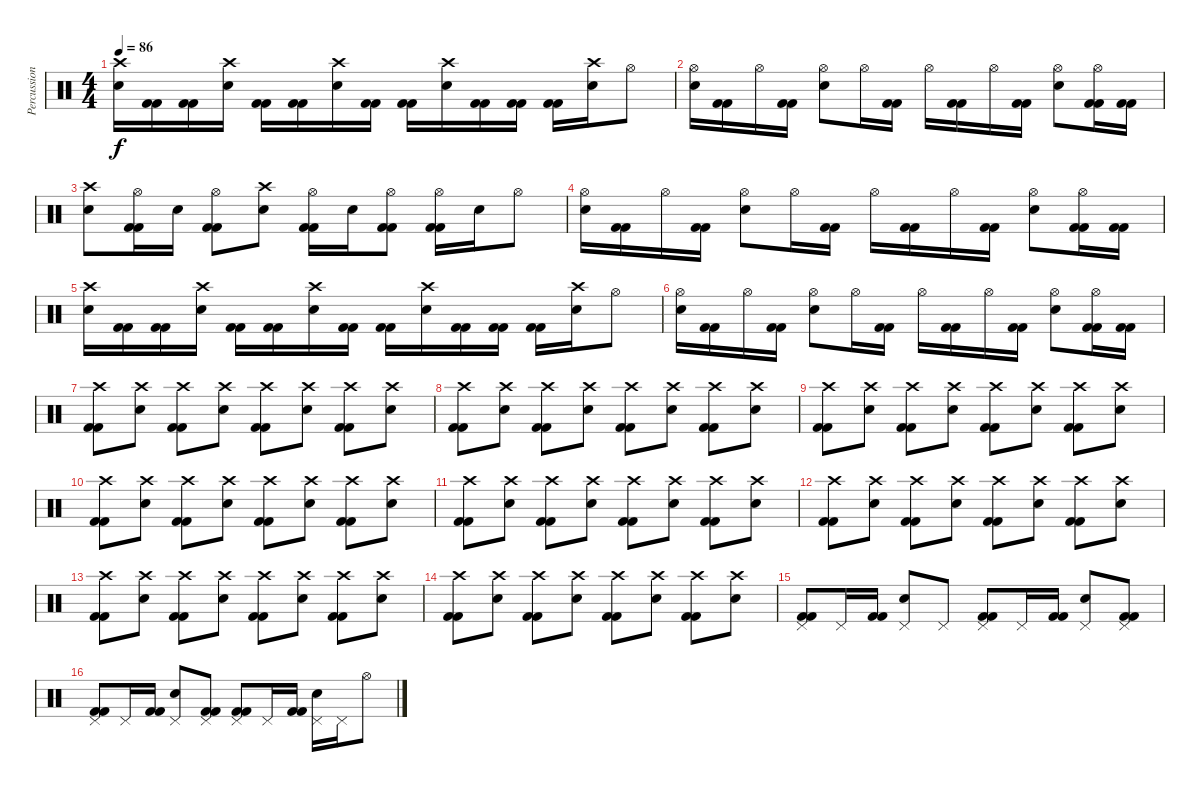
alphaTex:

\track ("Percussion" "Percussion") {instrument percussion}
\staff {score}
\articulation defaults
\ts (4 4)
\tempo 86
\clef neutral
\ks c
("Crash high (hit)" "Snare (hit) 2").16{dy f} ("Kick (hit) 2" "Kick (hit) 2").16 ("Kick (hit) 2" "Kick (hit) 2").16 ("Crash high (hit)" "Snare (hit) 2").16 ("Kick (hit) 2" "Kick (hit) 2").16 ("Kick (hit) 2" "Kick (hit) 2").16 ("Crash high (hit)" "Snare (hit) 2").16 ("Kick (hit) 2" "Kick (hit) 2").16 ("Kick (hit) 2" "Kick (hit) 2").16 ("Crash high (hit)" "Snare (hit) 2").16 ("Kick (hit) 2" "Kick (hit) 2").16 ("Kick (hit) 2" "Kick (hit) 2").16 ("Kick (hit) 2" "Kick (hit) 2").16 ("Crash high (hit)" "Snare (hit) 2").16 "Hi-Hat (open)".8 |
("Hi-Hat (open)" "Snare (hit) 2").16 ("Kick (hit) 2" "Kick (hit) 2").16 "Hi-Hat (open)".16 ("Kick (hit) 2" "Kick (hit) 2").16 ("Hi-Hat (open)" "Snare (hit) 2").8 "Hi-Hat (open)".16 ("Kick (hit) 2" "Kick (hit) 2").16 "Hi-Hat (open)".16 ("Kick (hit) 2" "Kick (hit) 2").16 "Hi-Hat (open)".16 ("Kick (hit) 2" "Kick (hit) 2").16 ("Hi-Hat (open)" "Snare (hit) 2").8 ("Hi-Hat (open)" "Kick (hit) 2" "Kick (hit) 2").16 ("Kick (hit) 2" "Kick (hit) 2").16 |
("Crash high (hit)" "Snare (hit) 2").8 ("Hi-Hat (open)" "Kick (hit) 2" "Kick (hit) 2").16 "Snare (hit) 2".16 ("Hi-Hat (open)" "Kick (hit) 2" "Kick (hit) 2").8 ("Crash high (hit)" "Snare (hit) 2").8 ("Hi-Hat (open)" "Kick (hit) 2" "Kick (hit) 2").16 "Snare (hit) 2".16 ("Hi-Hat (open)" "Kick (hit) 2" "Kick (hit) 2").8 ("Hi-Hat (open)" "Kick (hit) 2" "Kick (hit) 2").16 "Snare (hit) 2".16 "Hi-Hat (open)".8 |
("Hi-Hat (open)" "Snare (hit) 2").16 ("Kick (hit) 2" "Kick (hit) 2").16 "Hi-Hat (open)".16 ("Kick (hit) 2" "Kick (hit) 2").16 ("Hi-Hat (open)" "Snare (hit) 2").8 "Hi-Hat (open)".16 ("Kick (hit) 2" "Kick (hit) 2").16 "Hi-Hat (open)".16 ("Kick (hit) 2" "Kick (hit) 2").16 "Hi-Hat (open)".16 ("Kick (hit) 2" "Kick (hit) 2").16 ("Hi-Hat (open)" "Snare (hit) 2").8 ("Hi-Hat (open)" "Kick (hit) 2" "Kick (hit) 2").16 ("Kick (hit) 2" "Kick (hit) 2").16 |
("Crash high (hit)" "Snare (hit) 2").16 ("Kick (hit) 2" "Kick (hit) 2").16 ("Kick (hit) 2" "Kick (hit) 2").16 ("Crash high (hit)" "Snare (hit) 2").16 ("Kick (hit) 2" "Kick (hit) 2").16 ("Kick (hit) 2" "Kick (hit) 2").16 ("Crash high (hit)" "Snare (hit) 2").16 ("Kick (hit) 2" "Kick (hit) 2").16 ("Kick (hit) 2" "Kick (hit) 2").16 ("Crash high (hit)" "Snare (hit) 2").16 ("Kick (hit) 2" "Kick (hit) 2").16 ("Kick (hit) 2" "Kick (hit) 2").16 ("Kick (hit) 2" "Kick (hit) 2").16 ("Crash high (hit)" "Snare (hit) 2").16 "Hi-Hat (open)".8 |
("Hi-Hat (open)" "Snare (hit) 2").16 ("Kick (hit) 2" "Kick (hit) 2").16 "Hi-Hat (open)".16 ("Kick (hit) 2" "Kick (hit) 2").16 ("Hi-Hat (open)" "Snare (hit) 2").8 "Hi-Hat (open)".16 ("Kick (hit) 2" "Kick (hit) 2").16 "Hi-Hat (open)".16 ("Kick (hit) 2" "Kick (hit) 2").16 "Hi-Hat (open)".16 ("Kick (hit) 2" "Kick (hit) 2").16 ("Hi-Hat (open)" "Snare (hit) 2").8 ("Hi-Hat (open)" "Kick (hit) 2" "Kick (hit) 2").16 ("Kick (hit) 2" "Kick (hit) 2").16 |
("Crash high (hit)" "Kick (hit) 2" "Kick (hit) 2").8 ("Crash high (hit)" "Snare (hit) 2").8 ("Crash high (hit)" "Kick (hit) 2" "Kick (hit) 2").8 ("Crash high (hit)" "Snare (hit) 2").8 ("Crash high (hit)" "Kick (hit) 2" "Kick (hit) 2").8 ("Crash high (hit)" "Snare (hit) 2").8 ("Crash high (hit)" "Kick (hit) 2" "Kick (hit) 2").8 ("Crash high (hit)" "Snare (hit) 2").8 |
("Crash high (hit)" "Kick (hit) 2" "Kick (hit) 2").8 ("Crash high (hit)" "Snare (hit) 2").8 ("Crash high (hit)" "Kick (hit) 2" "Kick (hit) 2").8 ("Crash high (hit)" "Snare (hit) 2").8 ("Crash high (hit)" "Kick (hit) 2" "Kick (hit) 2").8 ("Crash high (hit)" "Snare (hit) 2").8 ("Crash high (hit)" "Kick (hit) 2" "Kick (hit) 2").8 ("Crash high (hit)" "Snare (hit) 2").8 |
("Crash high (hit)" "Kick (hit) 2" "Kick (hit) 2").8 ("Crash high (hit)" "Snare (hit) 2").8 ("Crash high (hit)" "Kick (hit) 2" "Kick (hit) 2").8 ("Crash high (hit)" "Snare (hit) 2").8 ("Crash high (hit)" "Kick (hit) 2" "Kick (hit) 2").8 ("Crash high (hit)" "Snare (hit) 2").8 ("Crash high (hit)" "Kick (hit) 2" "Kick (hit) 2").8 ("Crash high (hit)" "Snare (hit) 2").8 |
("Crash high (hit)" "Kick (hit) 2" "Kick (hit) 2").8 ("Crash high (hit)" "Snare (hit) 2").8 ("Crash high (hit)" "Kick (hit) 2" "Kick (hit) 2").8 ("Crash high (hit)" "Snare (hit) 2").8 ("Crash high (hit)" "Kick (hit) 2" "Kick (hit) 2").8 ("Crash high (hit)" "Snare (hit) 2").8 ("Crash high (hit)" "Kick (hit) 2" "Kick (hit) 2").8 ("Crash high (hit)" "Snare (hit) 2").8 |
("Crash high (hit)" "Kick (hit) 2" "Kick (hit) 2").8 ("Crash high (hit)" "Snare (hit) 2").8 ("Crash high (hit)" "Kick (hit) 2" "Kick (hit) 2").8 ("Crash high (hit)" "Snare (hit) 2").8 ("Crash high (hit)" "Kick (hit) 2" "Kick (hit) 2").8 ("Crash high (hit)" "Snare (hit) 2").8 ("Crash high (hit)" "Kick (hit) 2" "Kick (hit) 2").8 ("Crash high (hit)" "Snare (hit) 2").8 |
("Crash high (hit)" "Kick (hit) 2" "Kick (hit) 2").8 ("Crash high (hit)" "Snare (hit) 2").8 ("Crash high (hit)" "Kick (hit) 2" "Kick (hit) 2").8 ("Crash high (hit)" "Snare (hit) 2").8 ("Crash high (hit)" "Kick (hit) 2" "Kick (hit) 2").8 ("Crash high (hit)" "Snare (hit) 2").8 ("Crash high (hit)" "Kick (hit) 2" "Kick (hit) 2").8 ("Crash high (hit)" "Snare (hit) 2").8 |
("Crash high (hit)" "Kick (hit) 2" "Kick (hit) 2").8 ("Crash high (hit)" "Snare (hit) 2").8 ("Crash high (hit)" "Kick (hit) 2" "Kick (hit) 2").8 ("Crash high (hit)" "Snare (hit) 2").8 ("Crash high (hit)" "Kick (hit) 2" "Kick (hit) 2").8 ("Crash high (hit)" "Snare (hit) 2").8 ("Crash high (hit)" "Kick (hit) 2" "Kick (hit) 2").8 ("Crash high (hit)" "Snare (hit) 2").8 |
("Crash high (hit)" "Kick (hit) 2" "Kick (hit) 2").8 ("Crash high (hit)" "Snare (hit) 2").8 ("Crash high (hit)" "Kick (hit) 2" "Kick (hit) 2").8 ("Crash high (hit)" "Snare (hit) 2").8 ("Crash high (hit)" "Kick (hit) 2" "Kick (hit) 2").8 ("Crash high (hit)" "Snare (hit) 2").8 ("Crash high (hit)" "Kick (hit) 2" "Kick (hit) 2").8 ("Crash high (hit)" "Snare (hit) 2").8 |
("Pedal Hi-Hat (hit)" "Kick (hit) 2" "Kick (hit) 2").8 "Pedal Hi-Hat (hit)".16 ("Kick (hit) 2" "Kick (hit) 2").16 ("Pedal Hi-Hat (hit)" "Snare (hit) 2").8 "Pedal Hi-Hat (hit)".8 ("Pedal Hi-Hat (hit)" "Kick (hit) 2" "Kick (hit) 2").8 "Pedal Hi-Hat (hit)".16 ("Kick (hit) 2" "Kick (hit) 2").16 ("Pedal Hi-Hat (hit)" "Snare (hit) 2").8 ("Pedal Hi-Hat (hit)" "Kick (hit) 2" "Kick (hit) 2").8 |
("Pedal Hi-Hat (hit)" "Kick (hit) 2" "Kick (hit) 2").8 "Pedal Hi-Hat (hit)".16 ("Kick (hit) 2" "Kick (hit) 2").16 ("Pedal Hi-Hat (hit)" "Snare (hit) 2").8 ("Pedal Hi-Hat (hit)" "Kick (hit) 2" "Kick (hit) 2").8 ("Pedal Hi-Hat (hit)" "Kick (hit) 2" "Kick (hit) 2").8 "Pedal Hi-Hat (hit)".16 ("Kick (hit) 2" "Kick (hit) 2").16 ("Pedal Hi-Hat (hit)" "Snare (hit) 2").16 "Pedal Hi-Hat (hit)".16 "Hi-Hat (open)".8
